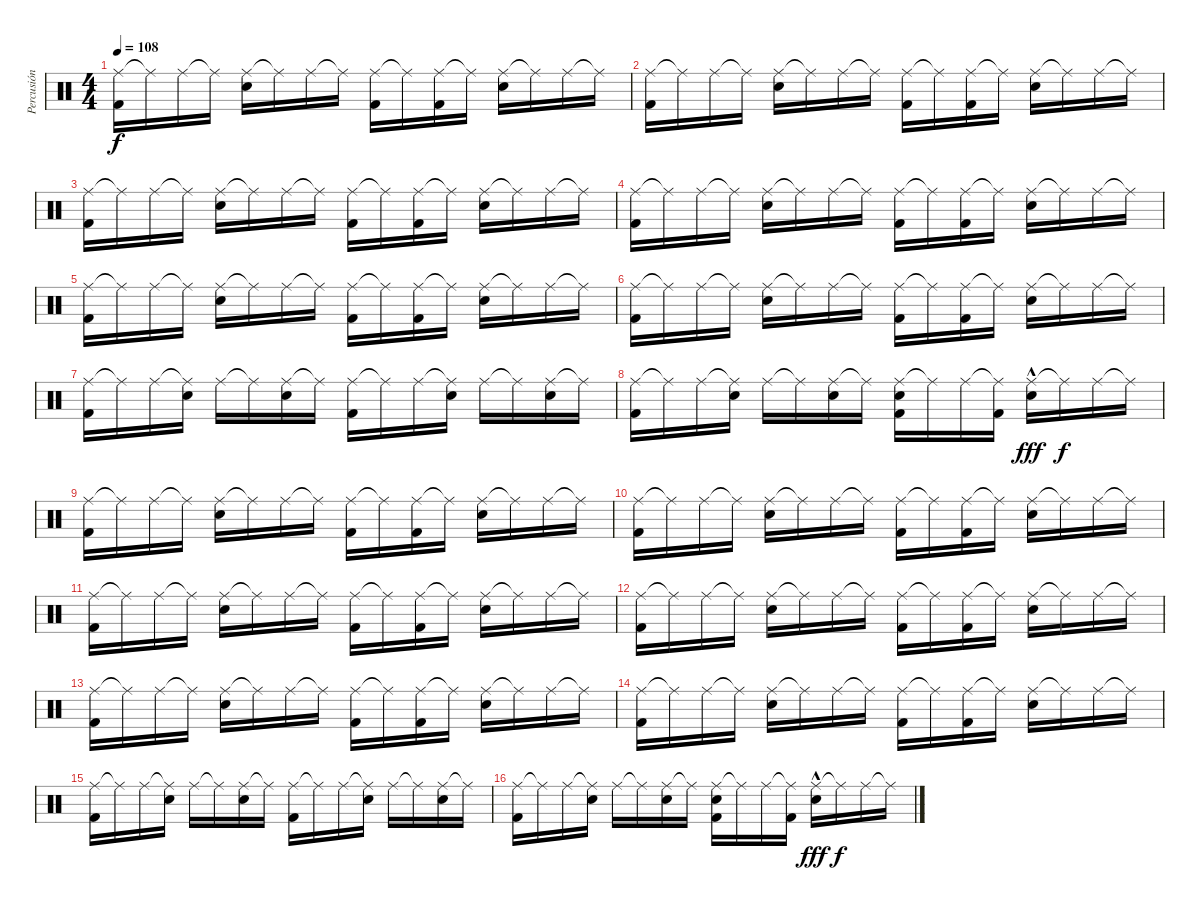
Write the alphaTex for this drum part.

\track ("Percusión" "Percusión") {instrument percussion}
\staff {score}
\articulation defaults
\ts (4 4)
\tempo 108
\clef neutral
\ks c
("Ride (middle)" "Kick (hit) 2").16{dy f} "Ride (middle)"{t}.16 "Ride (middle)".16 "Ride (middle)"{t}.16 ("Ride (middle)" "Snare (hit) 2").16 "Ride (middle)"{t}.16 "Ride (middle)".16 "Ride (middle)"{t}.16 ("Ride (middle)" "Kick (hit) 2").16 "Ride (middle)"{t}.16 ("Ride (middle)" "Kick (hit) 2").16 "Ride (middle)"{t}.16 ("Ride (middle)" "Snare (hit) 2").16 "Ride (middle)"{t}.16 "Ride (middle)".16 "Ride (middle)"{t}.16 |
("Ride (middle)" "Kick (hit) 2").16 "Ride (middle)"{t}.16 "Ride (middle)".16 "Ride (middle)"{t}.16 ("Ride (middle)" "Snare (hit) 2").16 "Ride (middle)"{t}.16 "Ride (middle)".16 "Ride (middle)"{t}.16 ("Ride (middle)" "Kick (hit) 2").16 "Ride (middle)"{t}.16 ("Ride (middle)" "Kick (hit) 2").16 "Ride (middle)"{t}.16 ("Ride (middle)" "Snare (hit) 2").16 "Ride (middle)"{t}.16 "Ride (middle)".16 "Ride (middle)"{t}.16 |
("Ride (middle)" "Kick (hit) 2").16 "Ride (middle)"{t}.16 "Ride (middle)".16 "Ride (middle)"{t}.16 ("Ride (middle)" "Snare (hit) 2").16 "Ride (middle)"{t}.16 "Ride (middle)".16 "Ride (middle)"{t}.16 ("Ride (middle)" "Kick (hit) 2").16 "Ride (middle)"{t}.16 ("Ride (middle)" "Kick (hit) 2").16 "Ride (middle)"{t}.16 ("Ride (middle)" "Snare (hit) 2").16 "Ride (middle)"{t}.16 "Ride (middle)".16 "Ride (middle)"{t}.16 |
("Ride (middle)" "Kick (hit) 2").16 "Ride (middle)"{t}.16 "Ride (middle)".16 "Ride (middle)"{t}.16 ("Ride (middle)" "Snare (hit) 2").16 "Ride (middle)"{t}.16 "Ride (middle)".16 "Ride (middle)"{t}.16 ("Ride (middle)" "Kick (hit) 2").16 "Ride (middle)"{t}.16 ("Ride (middle)" "Kick (hit) 2").16 "Ride (middle)"{t}.16 ("Ride (middle)" "Snare (hit) 2").16 "Ride (middle)"{t}.16 "Ride (middle)".16 "Ride (middle)"{t}.16 |
("Ride (middle)" "Kick (hit) 2").16 "Ride (middle)"{t}.16 "Ride (middle)".16 "Ride (middle)"{t}.16 ("Ride (middle)" "Snare (hit) 2").16 "Ride (middle)"{t}.16 "Ride (middle)".16 "Ride (middle)"{t}.16 ("Ride (middle)" "Kick (hit) 2").16 "Ride (middle)"{t}.16 ("Ride (middle)" "Kick (hit) 2").16 "Ride (middle)"{t}.16 ("Ride (middle)" "Snare (hit) 2").16 "Ride (middle)"{t}.16 "Ride (middle)".16 "Ride (middle)"{t}.16 |
("Ride (middle)" "Kick (hit) 2").16 "Ride (middle)"{t}.16 "Ride (middle)".16 "Ride (middle)"{t}.16 ("Ride (middle)" "Snare (hit) 2").16 "Ride (middle)"{t}.16 "Ride (middle)".16 "Ride (middle)"{t}.16 ("Ride (middle)" "Kick (hit) 2").16 "Ride (middle)"{t}.16 ("Ride (middle)" "Kick (hit) 2").16 "Ride (middle)"{t}.16 ("Ride (middle)" "Snare (hit) 2").16 "Ride (middle)"{t}.16 "Ride (middle)".16 "Ride (middle)"{t}.16 |
("Ride (middle)" "Kick (hit) 2").16 "Ride (middle)"{t}.16 "Ride (middle)".16 ("Ride (middle)"{t} "Snare (hit) 2").16 "Ride (middle)".16 "Ride (middle)"{t}.16 ("Ride (middle)" "Snare (hit) 2").16 "Ride (middle)"{t}.16 ("Ride (middle)" "Kick (hit) 2").16 "Ride (middle)"{t}.16 "Ride (middle)".16 ("Ride (middle)"{t} "Snare (hit) 2").16 "Ride (middle)".16 "Ride (middle)"{t}.16 ("Ride (middle)" "Snare (hit) 2").16 "Ride (middle)"{t}.16 |
("Ride (middle)" "Kick (hit) 2").16 "Ride (middle)"{t}.16 "Ride (middle)".16 ("Ride (middle)"{t} "Snare (hit) 2").16 "Ride (middle)".16 "Ride (middle)"{t}.16 ("Ride (middle)" "Snare (hit) 2").16 "Ride (middle)"{t}.16 ("Ride (middle)" "Snare (hit) 2" "Kick (hit) 2").16 "Ride (middle)"{t}.16 "Ride (middle)".16 ("Ride (middle)"{t} "Kick (hit) 2").16 ("Ride (middle)" "Snare (hit) 2"{hac}).16{dy fff} "Ride (middle)"{t}.16{dy f} "Ride (middle)".16 "Ride (middle)"{t}.16 |
("Ride (middle)" "Kick (hit) 2").16 "Ride (middle)"{t}.16 "Ride (middle)".16 "Ride (middle)"{t}.16 ("Ride (middle)" "Snare (hit) 2").16 "Ride (middle)"{t}.16 "Ride (middle)".16 "Ride (middle)"{t}.16 ("Ride (middle)" "Kick (hit) 2").16 "Ride (middle)"{t}.16 ("Ride (middle)" "Kick (hit) 2").16 "Ride (middle)"{t}.16 ("Ride (middle)" "Snare (hit) 2").16 "Ride (middle)"{t}.16 "Ride (middle)".16 "Ride (middle)"{t}.16 |
("Ride (middle)" "Kick (hit) 2").16 "Ride (middle)"{t}.16 "Ride (middle)".16 "Ride (middle)"{t}.16 ("Ride (middle)" "Snare (hit) 2").16 "Ride (middle)"{t}.16 "Ride (middle)".16 "Ride (middle)"{t}.16 ("Ride (middle)" "Kick (hit) 2").16 "Ride (middle)"{t}.16 ("Ride (middle)" "Kick (hit) 2").16 "Ride (middle)"{t}.16 ("Ride (middle)" "Snare (hit) 2").16 "Ride (middle)"{t}.16 "Ride (middle)".16 "Ride (middle)"{t}.16 |
("Ride (middle)" "Kick (hit) 2").16 "Ride (middle)"{t}.16 "Ride (middle)".16 "Ride (middle)"{t}.16 ("Ride (middle)" "Snare (hit) 2").16 "Ride (middle)"{t}.16 "Ride (middle)".16 "Ride (middle)"{t}.16 ("Ride (middle)" "Kick (hit) 2").16 "Ride (middle)"{t}.16 ("Ride (middle)" "Kick (hit) 2").16 "Ride (middle)"{t}.16 ("Ride (middle)" "Snare (hit) 2").16 "Ride (middle)"{t}.16 "Ride (middle)".16 "Ride (middle)"{t}.16 |
("Ride (middle)" "Kick (hit) 2").16 "Ride (middle)"{t}.16 "Ride (middle)".16 "Ride (middle)"{t}.16 ("Ride (middle)" "Snare (hit) 2").16 "Ride (middle)"{t}.16 "Ride (middle)".16 "Ride (middle)"{t}.16 ("Ride (middle)" "Kick (hit) 2").16 "Ride (middle)"{t}.16 ("Ride (middle)" "Kick (hit) 2").16 "Ride (middle)"{t}.16 ("Ride (middle)" "Snare (hit) 2").16 "Ride (middle)"{t}.16 "Ride (middle)".16 "Ride (middle)"{t}.16 |
("Ride (middle)" "Kick (hit) 2").16 "Ride (middle)"{t}.16 "Ride (middle)".16 "Ride (middle)"{t}.16 ("Ride (middle)" "Snare (hit) 2").16 "Ride (middle)"{t}.16 "Ride (middle)".16 "Ride (middle)"{t}.16 ("Ride (middle)" "Kick (hit) 2").16 "Ride (middle)"{t}.16 ("Ride (middle)" "Kick (hit) 2").16 "Ride (middle)"{t}.16 ("Ride (middle)" "Snare (hit) 2").16 "Ride (middle)"{t}.16 "Ride (middle)".16 "Ride (middle)"{t}.16 |
("Ride (middle)" "Kick (hit) 2").16 "Ride (middle)"{t}.16 "Ride (middle)".16 "Ride (middle)"{t}.16 ("Ride (middle)" "Snare (hit) 2").16 "Ride (middle)"{t}.16 "Ride (middle)".16 "Ride (middle)"{t}.16 ("Ride (middle)" "Kick (hit) 2").16 "Ride (middle)"{t}.16 ("Ride (middle)" "Kick (hit) 2").16 "Ride (middle)"{t}.16 ("Ride (middle)" "Snare (hit) 2").16 "Ride (middle)"{t}.16 "Ride (middle)".16 "Ride (middle)"{t}.16 |
("Ride (middle)" "Kick (hit) 2").16 "Ride (middle)"{t}.16 "Ride (middle)".16 ("Ride (middle)"{t} "Snare (hit) 2").16 "Ride (middle)".16 "Ride (middle)"{t}.16 ("Ride (middle)" "Snare (hit) 2").16 "Ride (middle)"{t}.16 ("Ride (middle)" "Kick (hit) 2").16 "Ride (middle)"{t}.16 "Ride (middle)".16 ("Ride (middle)"{t} "Snare (hit) 2").16 "Ride (middle)".16 "Ride (middle)"{t}.16 ("Ride (middle)" "Snare (hit) 2").16 "Ride (middle)"{t}.16 |
("Ride (middle)" "Kick (hit) 2").16 "Ride (middle)"{t}.16 "Ride (middle)".16 ("Ride (middle)"{t} "Snare (hit) 2").16 "Ride (middle)".16 "Ride (middle)"{t}.16 ("Ride (middle)" "Snare (hit) 2").16 "Ride (middle)"{t}.16 ("Ride (middle)" "Snare (hit) 2" "Kick (hit) 2").16 "Ride (middle)"{t}.16 "Ride (middle)".16 ("Ride (middle)"{t} "Kick (hit) 2").16 ("Ride (middle)" "Snare (hit) 2"{hac}).16{dy fff} "Ride (middle)"{t}.16{dy f} "Ride (middle)".16 "Ride (middle)"{t}.16
